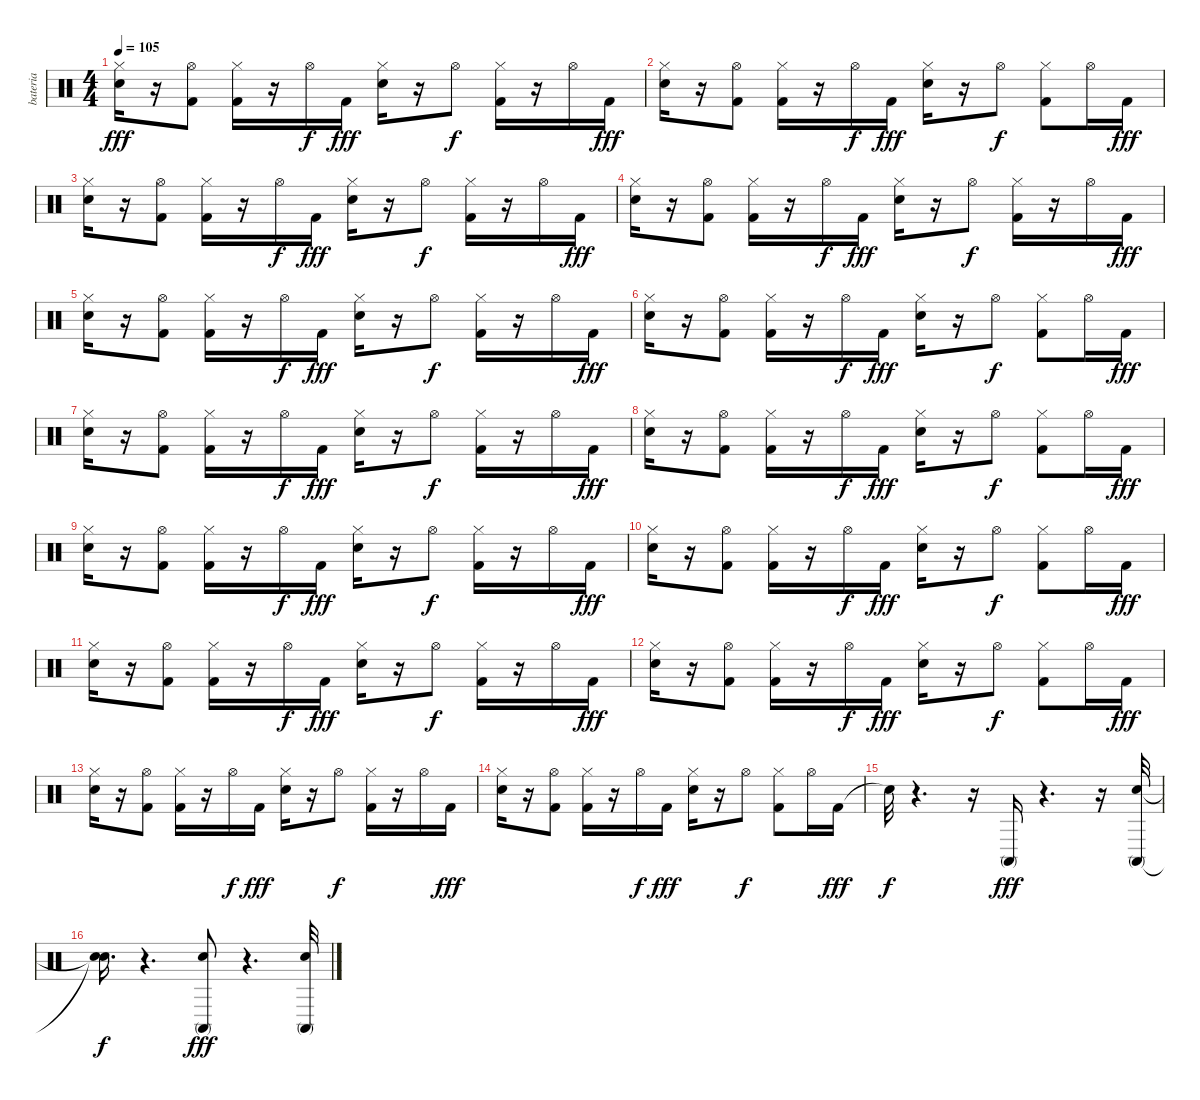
\track ("bateria" "bateria") {instrument percussion}
\staff {score}
\articulation defaults
\ts (4 4)
\tempo 105
\clef neutral
\ks c
("Snare (hit) 2" "Hi-Hat (closed)").16{dy fff} r.16 ("Kick (hit) 2" "Hi-Hat (open)").8 ("Kick (hit) 2" "Hi-Hat (closed)").16 r.16 "Hi-Hat (open)".16{dy f} "Kick (hit) 2".16{dy fff} ("Snare (hit) 2" "Hi-Hat (closed)").16 r.16 "Hi-Hat (open)".8{dy f} ("Hi-Hat (closed)" "Kick (hit) 2").16 r.16 "Hi-Hat (open)".16 "Kick (hit) 2".16{dy fff} |
("Snare (hit) 2" "Hi-Hat (closed)").16 r.16 ("Kick (hit) 2" "Hi-Hat (open)").8 ("Kick (hit) 2" "Hi-Hat (closed)").16 r.16 "Hi-Hat (open)".16{dy f} "Kick (hit) 2".16{dy fff} ("Snare (hit) 2" "Hi-Hat (closed)").16 r.16 "Hi-Hat (open)".8{dy f} ("Hi-Hat (closed)" "Kick (hit) 2").8 "Hi-Hat (open)".16 "Kick (hit) 2".16{dy fff} |
("Snare (hit) 2" "Hi-Hat (closed)").16 r.16 ("Kick (hit) 2" "Hi-Hat (open)").8 ("Kick (hit) 2" "Hi-Hat (closed)").16 r.16 "Hi-Hat (open)".16{dy f} "Kick (hit) 2".16{dy fff} ("Snare (hit) 2" "Hi-Hat (closed)").16 r.16 "Hi-Hat (open)".8{dy f} ("Hi-Hat (closed)" "Kick (hit) 2").16 r.16 "Hi-Hat (open)".16 "Kick (hit) 2".16{dy fff} |
("Snare (hit) 2" "Hi-Hat (closed)").16 r.16 ("Kick (hit) 2" "Hi-Hat (open)").8 ("Kick (hit) 2" "Hi-Hat (closed)").16 r.16 "Hi-Hat (open)".16{dy f} "Kick (hit) 2".16{dy fff} ("Snare (hit) 2" "Hi-Hat (closed)").16 r.16 "Hi-Hat (open)".8{dy f} ("Hi-Hat (closed)" "Kick (hit) 2").16 r.16 "Hi-Hat (open)".16 "Kick (hit) 2".16{dy fff} |
("Snare (hit) 2" "Hi-Hat (closed)").16 r.16 ("Kick (hit) 2" "Hi-Hat (open)").8 ("Kick (hit) 2" "Hi-Hat (closed)").16 r.16 "Hi-Hat (open)".16{dy f} "Kick (hit) 2".16{dy fff} ("Snare (hit) 2" "Hi-Hat (closed)").16 r.16 "Hi-Hat (open)".8{dy f} ("Hi-Hat (closed)" "Kick (hit) 2").16 r.16 "Hi-Hat (open)".16 "Kick (hit) 2".16{dy fff} |
("Snare (hit) 2" "Hi-Hat (closed)").16 r.16 ("Kick (hit) 2" "Hi-Hat (open)").8 ("Kick (hit) 2" "Hi-Hat (closed)").16 r.16 "Hi-Hat (open)".16{dy f} "Kick (hit) 2".16{dy fff} ("Snare (hit) 2" "Hi-Hat (closed)").16 r.16 "Hi-Hat (open)".8{dy f} ("Hi-Hat (closed)" "Kick (hit) 2").8 "Hi-Hat (open)".16 "Kick (hit) 2".16{dy fff} |
("Snare (hit) 2" "Hi-Hat (closed)").16 r.16 ("Kick (hit) 2" "Hi-Hat (open)").8 ("Kick (hit) 2" "Hi-Hat (closed)").16 r.16 "Hi-Hat (open)".16{dy f} "Kick (hit) 2".16{dy fff} ("Snare (hit) 2" "Hi-Hat (closed)").16 r.16 "Hi-Hat (open)".8{dy f} ("Hi-Hat (closed)" "Kick (hit) 2").16 r.16 "Hi-Hat (open)".16 "Kick (hit) 2".16{dy fff} |
("Snare (hit) 2" "Hi-Hat (closed)").16 r.16 ("Kick (hit) 2" "Hi-Hat (open)").8 ("Kick (hit) 2" "Hi-Hat (closed)").16 r.16 "Hi-Hat (open)".16{dy f} "Kick (hit) 2".16{dy fff} ("Snare (hit) 2" "Hi-Hat (closed)").16 r.16 "Hi-Hat (open)".8{dy f} ("Hi-Hat (closed)" "Kick (hit) 2").8 "Hi-Hat (open)".16 "Kick (hit) 2".16{dy fff} |
("Snare (hit) 2" "Hi-Hat (closed)").16 r.16 ("Kick (hit) 2" "Hi-Hat (open)").8 ("Kick (hit) 2" "Hi-Hat (closed)").16 r.16 "Hi-Hat (open)".16{dy f} "Kick (hit) 2".16{dy fff} ("Snare (hit) 2" "Hi-Hat (closed)").16 r.16 "Hi-Hat (open)".8{dy f} ("Hi-Hat (closed)" "Kick (hit) 2").16 r.16 "Hi-Hat (open)".16 "Kick (hit) 2".16{dy fff} |
("Snare (hit) 2" "Hi-Hat (closed)").16 r.16 ("Kick (hit) 2" "Hi-Hat (open)").8 ("Kick (hit) 2" "Hi-Hat (closed)").16 r.16 "Hi-Hat (open)".16{dy f} "Kick (hit) 2".16{dy fff} ("Snare (hit) 2" "Hi-Hat (closed)").16 r.16 "Hi-Hat (open)".8{dy f} ("Hi-Hat (closed)" "Kick (hit) 2").8 "Hi-Hat (open)".16 "Kick (hit) 2".16{dy fff} |
("Snare (hit) 2" "Hi-Hat (closed)").16 r.16 ("Kick (hit) 2" "Hi-Hat (open)").8 ("Kick (hit) 2" "Hi-Hat (closed)").16 r.16 "Hi-Hat (open)".16{dy f} "Kick (hit) 2".16{dy fff} ("Snare (hit) 2" "Hi-Hat (closed)").16 r.16 "Hi-Hat (open)".8{dy f} ("Hi-Hat (closed)" "Kick (hit) 2").16 r.16 "Hi-Hat (open)".16 "Kick (hit) 2".16{dy fff} |
("Snare (hit) 2" "Hi-Hat (closed)").16 r.16 ("Kick (hit) 2" "Hi-Hat (open)").8 ("Kick (hit) 2" "Hi-Hat (closed)").16 r.16 "Hi-Hat (open)".16{dy f} "Kick (hit) 2".16{dy fff} ("Snare (hit) 2" "Hi-Hat (closed)").16 r.16 "Hi-Hat (open)".8{dy f} ("Hi-Hat (closed)" "Kick (hit) 2").8 "Hi-Hat (open)".16 "Kick (hit) 2".16{dy fff} |
("Snare (hit) 2" "Hi-Hat (closed)").16 r.16 ("Kick (hit) 2" "Hi-Hat (open)").8 ("Kick (hit) 2" "Hi-Hat (closed)").16 r.16 "Hi-Hat (open)".16{dy f} "Kick (hit) 2".16{dy fff} ("Snare (hit) 2" "Hi-Hat (closed)").16 r.16 "Hi-Hat (open)".8{dy f} ("Hi-Hat (closed)" "Kick (hit) 2").16 r.16 "Hi-Hat (open)".16 "Kick (hit) 2".16{dy fff} |
("Snare (hit) 2" "Hi-Hat (closed)").16 r.16 ("Kick (hit) 2" "Hi-Hat (open)").8 ("Kick (hit) 2" "Hi-Hat (closed)").16 r.16 "Hi-Hat (open)".16{dy f} "Kick (hit) 2".16{dy fff} ("Snare (hit) 2" "Hi-Hat (closed)").16 r.16 "Hi-Hat (open)".8{dy f} ("Hi-Hat (closed)" "Kick (hit) 2").8 "Hi-Hat (open)".16 "Kick (hit) 2".16{dy fff} |
"Snare (hit)"{t}.32{dy f} r.4{d} r.16 "Conga high (mute)".16{dy fff} r.4{d} r.16 ("Conga high (mute)" "Snare (hit) 2").32 |
("Snare (hit)"{t} "Snare (hit)"{t}).16{d dy f} r.4{d} ("Conga high (mute)" "Snare (hit) 2").8{dy fff} r.4{d} ("Conga high (mute)" "Snare (hit) 2").32
